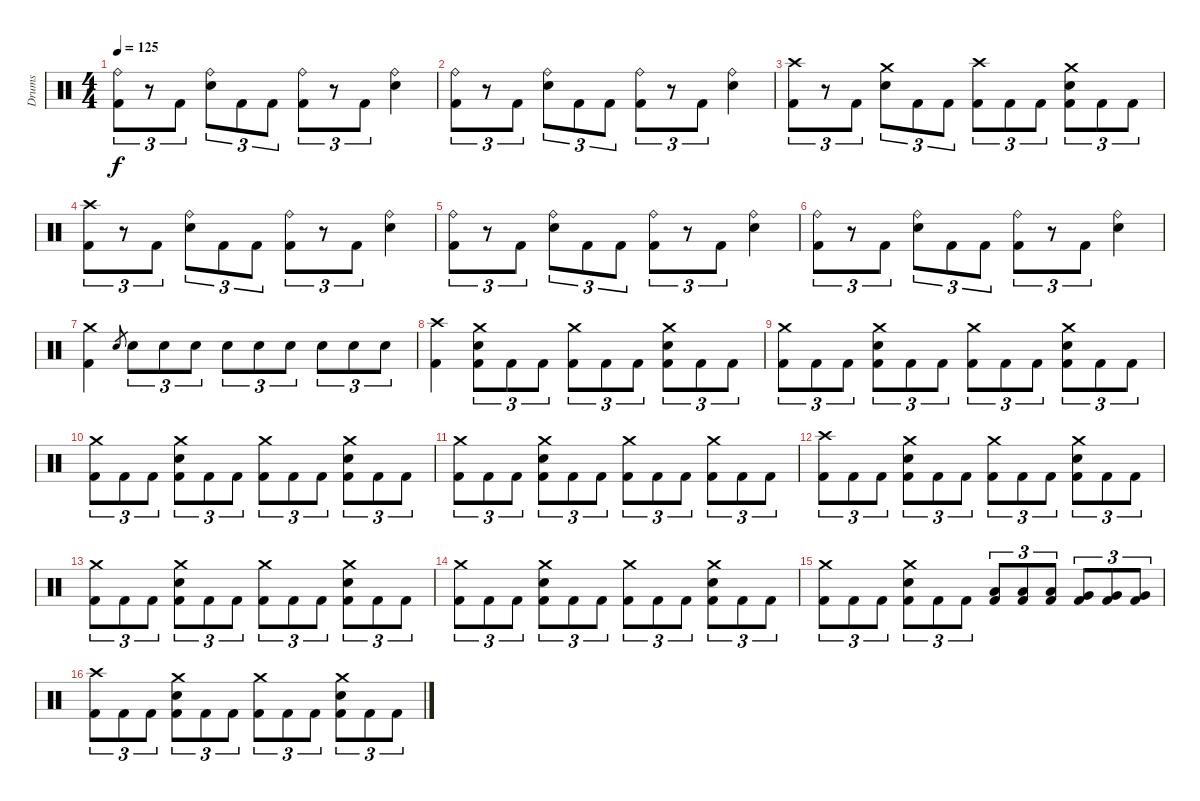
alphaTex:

\track ("Drums" "Drums") {instrument percussion}
\staff {score}
\articulation defaults
\ts (4 4)
\tempo 125
\clef neutral
\ks c
("Ride (bell)" "Kick (hit) 2").8{tu (3 2) dy f} r.8{tu (3 2)} "Kick (hit) 2".8{tu (3 2)} ("Ride (bell)" "Electric Snare (hit)").8{tu (3 2)} "Kick (hit) 2".8{tu (3 2)} "Kick (hit) 2".8{tu (3 2)} ("Ride (bell)" "Kick (hit) 2").8{tu (3 2)} r.8{tu (3 2)} "Kick (hit) 2".8{tu (3 2)} ("Ride (bell)" "Electric Snare (hit)").4 |
("Ride (bell)" "Kick (hit) 2").8{tu (3 2)} r.8{tu (3 2)} "Kick (hit) 2".8{tu (3 2)} ("Ride (bell)" "Electric Snare (hit)").8{tu (3 2)} "Kick (hit) 2".8{tu (3 2)} "Kick (hit) 2".8{tu (3 2)} ("Ride (bell)" "Kick (hit) 2").8{tu (3 2)} r.8{tu (3 2)} "Kick (hit) 2".8{tu (3 2)} ("Ride (bell)" "Electric Snare (hit)").4 |
("Crash high (hit)" "Kick (hit) 2").8{tu (3 2)} r.8{tu (3 2)} "Kick (hit) 2".8{tu (3 2)} ("Crash medium (hit)" "Electric Snare (hit)").8{tu (3 2)} "Kick (hit) 2".8{tu (3 2)} "Kick (hit) 2".8{tu (3 2)} ("Crash high (hit)" "Kick (hit) 2").8{tu (3 2)} "Kick (hit) 2".8{tu (3 2)} "Kick (hit) 2".8{tu (3 2)} ("Crash medium (hit)" "Electric Snare (hit)" "Kick (hit) 2").8{tu (3 2)} "Kick (hit) 2".8{tu (3 2)} "Kick (hit) 2".8{tu (3 2)} |
("Crash high (hit)" "Kick (hit) 2").8{tu (3 2)} r.8{tu (3 2)} "Kick (hit) 2".8{tu (3 2)} ("Ride (bell)" "Electric Snare (hit)").8{tu (3 2)} "Kick (hit) 2".8{tu (3 2)} "Kick (hit) 2".8{tu (3 2)} ("Ride (bell)" "Kick (hit) 2").8{tu (3 2)} r.8{tu (3 2)} "Kick (hit) 2".8{tu (3 2)} ("Ride (bell)" "Electric Snare (hit)").4 |
("Ride (bell)" "Kick (hit) 2").8{tu (3 2)} r.8{tu (3 2)} "Kick (hit) 2".8{tu (3 2)} ("Ride (bell)" "Electric Snare (hit)").8{tu (3 2)} "Kick (hit) 2".8{tu (3 2)} "Kick (hit) 2".8{tu (3 2)} ("Ride (bell)" "Kick (hit) 2").8{tu (3 2)} r.8{tu (3 2)} "Kick (hit) 2".8{tu (3 2)} ("Ride (bell)" "Electric Snare (hit)").4 |
("Ride (bell)" "Kick (hit) 2").8{tu (3 2)} r.8{tu (3 2)} "Kick (hit) 2".8{tu (3 2)} ("Ride (bell)" "Electric Snare (hit)").8{tu (3 2)} "Kick (hit) 2".8{tu (3 2)} "Kick (hit) 2".8{tu (3 2)} ("Ride (bell)" "Kick (hit) 2").8{tu (3 2)} r.8{tu (3 2)} "Kick (hit) 2".8{tu (3 2)} ("Ride (bell)" "Electric Snare (hit)").4 |
("Crash medium (hit)" "Kick (hit) 2").4 "Electric Snare (hit)".8{gr} "Electric Snare (hit)".8{tu (3 2)} "Electric Snare (hit)".8{tu (3 2)} "Electric Snare (hit)".8{tu (3 2)} "Electric Snare (hit)".8{tu (3 2)} "Electric Snare (hit)".8{tu (3 2)} "Electric Snare (hit)".8{tu (3 2)} "Electric Snare (hit)".8{tu (3 2)} "Electric Snare (hit)".8{tu (3 2)} "Electric Snare (hit)".8{tu (3 2)} |
("Crash high (hit)" "Kick (hit) 2").4 ("Crash medium (hit)" "Electric Snare (hit)" "Kick (hit) 2").8{tu (3 2)} "Kick (hit) 2".8{tu (3 2)} "Kick (hit) 2".8{tu (3 2)} ("Crash medium (hit)" "Kick (hit) 2").8{tu (3 2)} "Kick (hit) 2".8{tu (3 2)} "Kick (hit) 2".8{tu (3 2)} ("Crash medium (hit)" "Electric Snare (hit)" "Kick (hit) 2").8{tu (3 2)} "Kick (hit) 2".8{tu (3 2)} "Kick (hit) 2".8{tu (3 2)} |
("Crash medium (hit)" "Kick (hit) 2").8{tu (3 2)} "Kick (hit) 2".8{tu (3 2)} "Kick (hit) 2".8{tu (3 2)} ("Crash medium (hit)" "Electric Snare (hit)" "Kick (hit) 2").8{tu (3 2)} "Kick (hit) 2".8{tu (3 2)} "Kick (hit) 2".8{tu (3 2)} ("Crash medium (hit)" "Kick (hit) 2").8{tu (3 2)} "Kick (hit) 2".8{tu (3 2)} "Kick (hit) 2".8{tu (3 2)} ("Crash medium (hit)" "Electric Snare (hit)" "Kick (hit) 2").8{tu (3 2)} "Kick (hit) 2".8{tu (3 2)} "Kick (hit) 2".8{tu (3 2)} |
("Crash medium (hit)" "Kick (hit) 2").8{tu (3 2)} "Kick (hit) 2".8{tu (3 2)} "Kick (hit) 2".8{tu (3 2)} ("Crash medium (hit)" "Electric Snare (hit)" "Kick (hit) 2").8{tu (3 2)} "Kick (hit) 2".8{tu (3 2)} "Kick (hit) 2".8{tu (3 2)} ("Crash medium (hit)" "Kick (hit) 2").8{tu (3 2)} "Kick (hit) 2".8{tu (3 2)} "Kick (hit) 2".8{tu (3 2)} ("Crash medium (hit)" "Electric Snare (hit)" "Kick (hit) 2").8{tu (3 2)} "Kick (hit) 2".8{tu (3 2)} "Kick (hit) 2".8{tu (3 2)} |
("Crash medium (hit)" "Kick (hit) 2").8{tu (3 2)} "Kick (hit) 2".8{tu (3 2)} "Kick (hit) 2".8{tu (3 2)} ("Crash medium (hit)" "Electric Snare (hit)" "Kick (hit) 2").8{tu (3 2)} "Kick (hit) 2".8{tu (3 2)} "Kick (hit) 2".8{tu (3 2)} ("Crash medium (hit)" "Kick (hit) 2").8{tu (3 2)} "Kick (hit) 2".8{tu (3 2)} "Kick (hit) 2".8{tu (3 2)} ("Crash medium (hit)" "Kick (hit) 2").8{tu (3 2)} "Kick (hit) 2".8{tu (3 2)} "Kick (hit) 2".8{tu (3 2)} |
("Crash high (hit)" "Kick (hit) 2").8{tu (3 2)} "Kick (hit) 2".8{tu (3 2)} "Kick (hit) 2".8{tu (3 2)} ("Crash medium (hit)" "Electric Snare (hit)" "Kick (hit) 2").8{tu (3 2)} "Kick (hit) 2".8{tu (3 2)} "Kick (hit) 2".8{tu (3 2)} ("Crash medium (hit)" "Kick (hit) 2").8{tu (3 2)} "Kick (hit) 2".8{tu (3 2)} "Kick (hit) 2".8{tu (3 2)} ("Crash medium (hit)" "Electric Snare (hit)" "Kick (hit) 2").8{tu (3 2)} "Kick (hit) 2".8{tu (3 2)} "Kick (hit) 2".8{tu (3 2)} |
("Crash medium (hit)" "Kick (hit) 2").8{tu (3 2)} "Kick (hit) 2".8{tu (3 2)} "Kick (hit) 2".8{tu (3 2)} ("Crash medium (hit)" "Electric Snare (hit)" "Kick (hit) 2").8{tu (3 2)} "Kick (hit) 2".8{tu (3 2)} "Kick (hit) 2".8{tu (3 2)} ("Crash medium (hit)" "Kick (hit) 2").8{tu (3 2)} "Kick (hit) 2".8{tu (3 2)} "Kick (hit) 2".8{tu (3 2)} ("Crash medium (hit)" "Electric Snare (hit)" "Kick (hit) 2").8{tu (3 2)} "Kick (hit) 2".8{tu (3 2)} "Kick (hit) 2".8{tu (3 2)} |
("Crash medium (hit)" "Kick (hit) 2").8{tu (3 2)} "Kick (hit) 2".8{tu (3 2)} "Kick (hit) 2".8{tu (3 2)} ("Crash medium (hit)" "Electric Snare (hit)" "Kick (hit) 2").8{tu (3 2)} "Kick (hit) 2".8{tu (3 2)} "Kick (hit) 2".8{tu (3 2)} ("Crash medium (hit)" "Kick (hit) 2").8{tu (3 2)} "Kick (hit) 2".8{tu (3 2)} "Kick (hit) 2".8{tu (3 2)} ("Crash medium (hit)" "Electric Snare (hit)" "Kick (hit) 2").8{tu (3 2)} "Kick (hit) 2".8{tu (3 2)} "Kick (hit) 2".8{tu (3 2)} |
("Crash medium (hit)" "Kick (hit) 2").8{tu (3 2)} "Kick (hit) 2".8{tu (3 2)} "Kick (hit) 2".8{tu (3 2)} ("Crash medium (hit)" "Electric Snare (hit)" "Kick (hit) 2").8{tu (3 2)} "Kick (hit) 2".8{tu (3 2)} "Kick (hit) 2".8{tu (3 2)} ("Low Tom (hit)" "Kick (hit) 2").8{tu (3 2)} ("Low Tom (hit)" "Kick (hit) 2").8{tu (3 2)} ("Low Tom (hit)" "Kick (hit) 2").8{tu (3 2)} ("Very Low Tom (hit)" "Kick (hit) 2").8{tu (3 2)} ("Very Low Tom (hit)" "Kick (hit) 2").8{tu (3 2)} ("Very Low Tom (hit)" "Kick (hit) 2").8{tu (3 2)} |
("Crash high (hit)" "Kick (hit) 2").8{tu (3 2)} "Kick (hit) 2".8{tu (3 2)} "Kick (hit) 2".8{tu (3 2)} ("Crash medium (hit)" "Electric Snare (hit)" "Kick (hit) 2").8{tu (3 2)} "Kick (hit) 2".8{tu (3 2)} "Kick (hit) 2".8{tu (3 2)} ("Crash medium (hit)" "Kick (hit) 2").8{tu (3 2)} "Kick (hit) 2".8{tu (3 2)} "Kick (hit) 2".8{tu (3 2)} ("Crash medium (hit)" "Electric Snare (hit)" "Kick (hit) 2").8{tu (3 2)} "Kick (hit) 2".8{tu (3 2)} "Kick (hit) 2".8{tu (3 2)}
